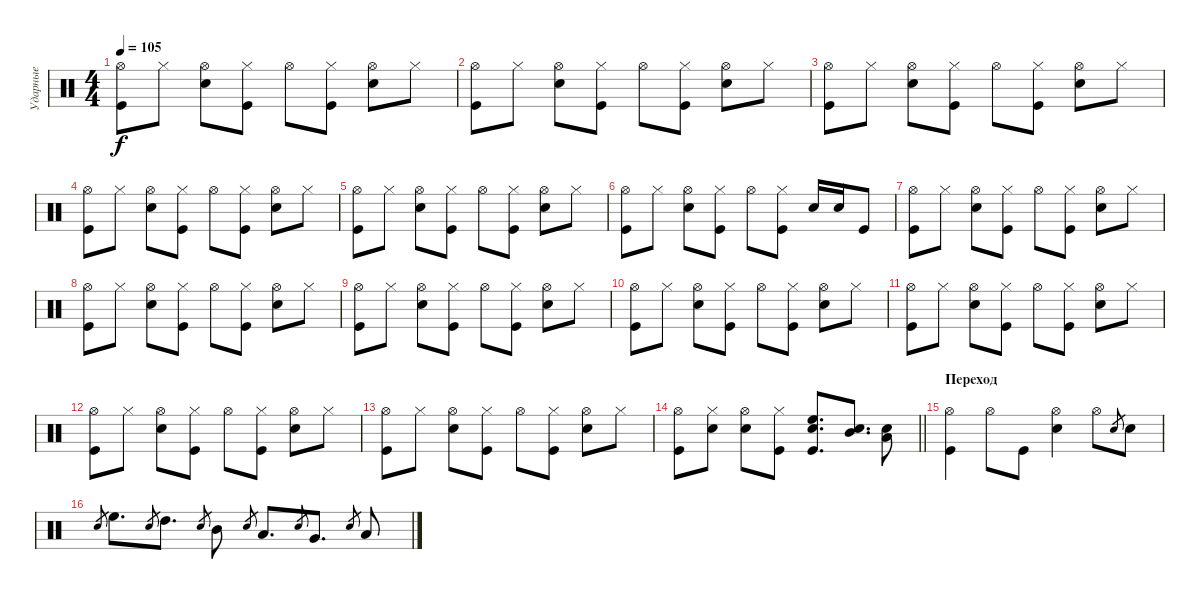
\track ("Ударные" "Ударные") {instrument percussion}
\staff {score}
\articulation defaults
\ts (4 4)
\tempo 105
\clef neutral
\ks c
("Hi-Hat (open)" "Kick (hit)").8{dy f} "Hi-Hat (closed)".8 ("Hi-Hat (open)" "Snare (hit) 2").8 ("Hi-Hat (closed)" "Kick (hit)").8 "Hi-Hat (open)".8 ("Hi-Hat (closed)" "Kick (hit)").8 ("Hi-Hat (open)" "Snare (hit) 2").8 "Hi-Hat (closed)".8 |
("Hi-Hat (open)" "Kick (hit)").8 "Hi-Hat (closed)".8 ("Hi-Hat (open)" "Snare (hit) 2").8 ("Hi-Hat (closed)" "Kick (hit)").8 "Hi-Hat (open)".8 ("Hi-Hat (closed)" "Kick (hit)").8 ("Hi-Hat (open)" "Snare (hit) 2").8 "Hi-Hat (closed)".8 |
("Hi-Hat (open)" "Kick (hit)").8 "Hi-Hat (closed)".8 ("Hi-Hat (open)" "Snare (hit) 2").8 ("Hi-Hat (closed)" "Kick (hit)").8 "Hi-Hat (open)".8 ("Hi-Hat (closed)" "Kick (hit)").8 ("Hi-Hat (open)" "Snare (hit) 2").8 "Hi-Hat (closed)".8 |
("Hi-Hat (open)" "Kick (hit)").8 "Hi-Hat (closed)".8 ("Hi-Hat (open)" "Snare (hit) 2").8 ("Hi-Hat (closed)" "Kick (hit)").8 "Hi-Hat (open)".8 ("Hi-Hat (closed)" "Kick (hit)").8 ("Hi-Hat (open)" "Snare (hit) 2").8 "Hi-Hat (closed)".8 |
("Hi-Hat (open)" "Kick (hit)").8 "Hi-Hat (closed)".8 ("Hi-Hat (open)" "Snare (hit) 2").8 ("Hi-Hat (closed)" "Kick (hit)").8 "Hi-Hat (open)".8 ("Hi-Hat (closed)" "Kick (hit)").8 ("Hi-Hat (open)" "Snare (hit) 2").8 "Hi-Hat (closed)".8 |
("Hi-Hat (open)" "Kick (hit)").8 "Hi-Hat (closed)".8 ("Hi-Hat (open)" "Snare (hit) 2").8 ("Hi-Hat (closed)" "Kick (hit)").8 "Hi-Hat (open)".8 ("Hi-Hat (closed)" "Kick (hit)").8 "Snare (hit) 2".16 "Snare (hit) 2".16 "Kick (hit)".8 |
("Hi-Hat (open)" "Kick (hit)").8 "Hi-Hat (closed)".8 ("Hi-Hat (open)" "Snare (hit) 2").8 ("Hi-Hat (closed)" "Kick (hit)").8 "Hi-Hat (open)".8 ("Hi-Hat (closed)" "Kick (hit)").8 ("Hi-Hat (open)" "Snare (hit) 2").8 "Hi-Hat (closed)".8 |
("Hi-Hat (open)" "Kick (hit)").8 "Hi-Hat (closed)".8 ("Hi-Hat (open)" "Snare (hit) 2").8 ("Hi-Hat (closed)" "Kick (hit)").8 "Hi-Hat (open)".8 ("Hi-Hat (closed)" "Kick (hit)").8 ("Hi-Hat (open)" "Snare (hit) 2").8 "Hi-Hat (closed)".8 |
("Hi-Hat (open)" "Kick (hit)").8 "Hi-Hat (closed)".8 ("Hi-Hat (open)" "Snare (hit) 2").8 ("Hi-Hat (closed)" "Kick (hit)").8 "Hi-Hat (open)".8 ("Hi-Hat (closed)" "Kick (hit)").8 ("Hi-Hat (open)" "Snare (hit) 2").8 "Hi-Hat (closed)".8 |
("Hi-Hat (open)" "Kick (hit)").8 "Hi-Hat (closed)".8 ("Hi-Hat (open)" "Snare (hit) 2").8 ("Hi-Hat (closed)" "Kick (hit)").8 "Hi-Hat (open)".8 ("Hi-Hat (closed)" "Kick (hit)").8 ("Hi-Hat (open)" "Snare (hit) 2").8 "Hi-Hat (closed)".8 |
("Hi-Hat (open)" "Kick (hit)").8 "Hi-Hat (closed)".8 ("Hi-Hat (open)" "Snare (hit) 2").8 ("Hi-Hat (closed)" "Kick (hit)").8 "Hi-Hat (open)".8 ("Hi-Hat (closed)" "Kick (hit)").8 ("Hi-Hat (open)" "Snare (hit) 2").8 "Hi-Hat (closed)".8 |
("Hi-Hat (open)" "Kick (hit)").8 "Hi-Hat (closed)".8 ("Hi-Hat (open)" "Snare (hit) 2").8 ("Hi-Hat (closed)" "Kick (hit)").8 "Hi-Hat (open)".8 ("Hi-Hat (closed)" "Kick (hit)").8 ("Hi-Hat (open)" "Snare (hit) 2").8 "Hi-Hat (closed)".8 |
("Hi-Hat (open)" "Kick (hit)").8 "Hi-Hat (closed)".8 ("Hi-Hat (open)" "Snare (hit) 2").8 ("Hi-Hat (closed)" "Kick (hit)").8 "Hi-Hat (open)".8 ("Hi-Hat (closed)" "Kick (hit)").8 ("Hi-Hat (open)" "Snare (hit) 2").8 "Hi-Hat (closed)".8 |
\barLineRight lightlight
("Hi-Hat (open)" "Kick (hit)").8 ("Hi-Hat (closed)" "Snare (hit) 2").8 ("Hi-Hat (open)" "Snare (hit) 2").8 ("Kick (hit)" "Hi-Hat (closed)").8 ("Kick (hit)" "Snare (hit) 2" "High Floor Tom (hit)").8{d} ("Snare (hit) 2" "Mid Tom (hit)").8{d} ("Low Tom (hit)" "Snare (hit) 2").8 |
\section ("" "Переход")
("Kick (hit)" "Hi-Hat (open)").4 "Hi-Hat (open)".8 "Kick (hit)".8 ("Hi-Hat (open)" "Snare (hit) 2").4 "Hi-Hat (open)".8 "Snare (hit) 2".8{gr} "Snare (hit) 2".8 |
"Snare (hit) 2".8{gr} "High Floor Tom (hit)".8{d} "Snare (hit) 2".8{gr} "High Tom (hit)".8{d} "Snare (hit) 2".8{gr} "Mid Tom (hit)".8 "Snare (hit) 2".8{gr} "Low Tom (hit)".8{d} "Snare (hit) 2".8{gr} "Very Low Tom (hit)".8{d} "Snare (hit) 2".8{gr} "Low Floor Tom (hit)".8
